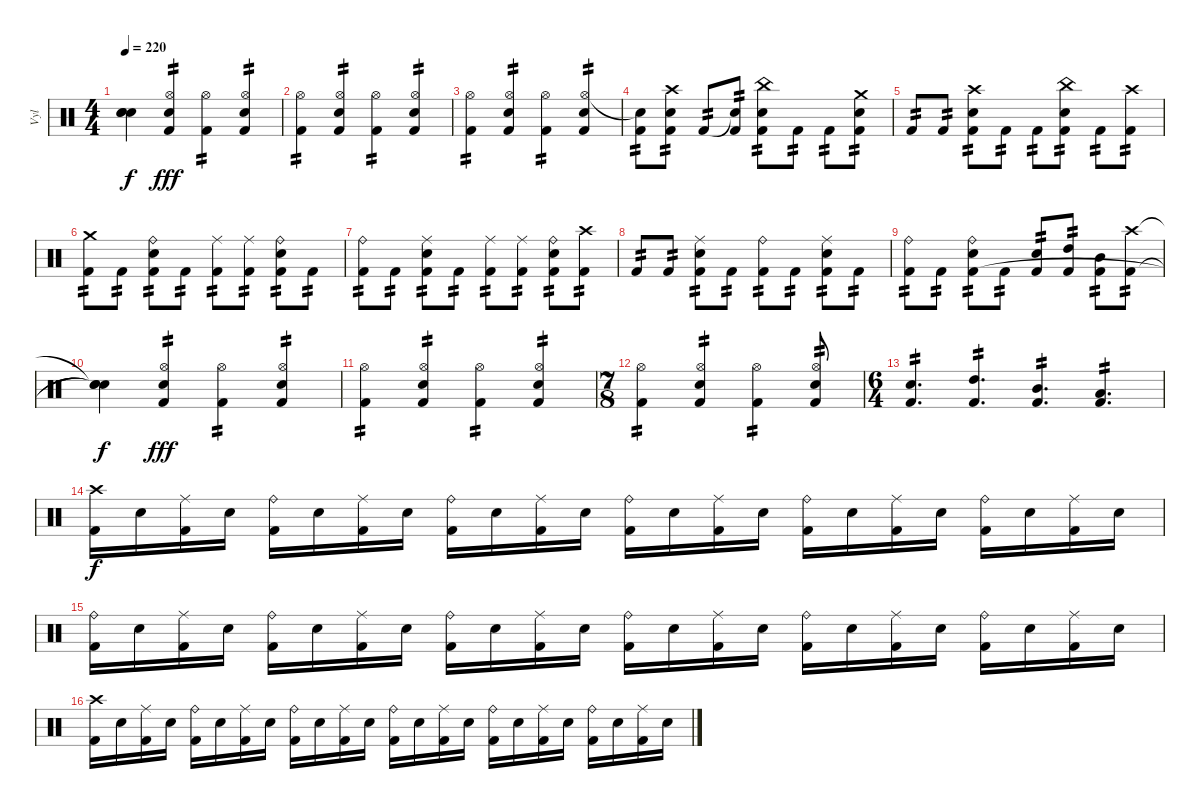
\track ("Vyl" "Vyl") {instrument percussion}
\staff {score}
\articulation defaults
\ts (4 4)
\tempo 220
\clef neutral
\ks c
("Snare (hit)"{t} "Snare (hit)"{t} "Snare (hit)"{t}).4{dy f} ("Hi-Hat (open)" "Snare (hit) 2" "Kick (hit) 2").4{tp 2 dy fff} ("Hi-Hat (open)" "Kick (hit) 2").4{tp 2} ("Hi-Hat (open)" "Snare (hit) 2" "Kick (hit) 2").4{tp 2} |
("Hi-Hat (open)" "Kick (hit) 2").4{tp 2} ("Hi-Hat (open)" "Snare (hit) 2" "Kick (hit) 2").4{tp 2} ("Hi-Hat (open)" "Kick (hit) 2").4{tp 2} ("Hi-Hat (open)" "Snare (hit) 2" "Kick (hit) 2").4{tp 2} |
("Hi-Hat (open)" "Kick (hit) 2").4{tp 2} ("Hi-Hat (open)" "Snare (hit) 2" "Kick (hit) 2").4{tp 2} ("Hi-Hat (open)" "Kick (hit) 2").4{tp 2} ("Hi-Hat (open)" "Snare (hit) 2" "Kick (hit) 2").4{tp 2} |
("Snare (hit)"{t} "Kick (hit) 2").8{tp 2} ("Crash high (hit)" "Snare (hit) 2" "Kick (hit) 2").8{tp 2} "Kick (hit) 2".8{tp 2} ("Snare (hit)"{t} "Kick (hit) 2").8{tp 2} ("China (hit)" "Snare (hit) 2" "Kick (hit) 2").8{tp 2} "Kick (hit) 2".8{tp 2} "Kick (hit) 2".8{tp 2} ("Crash medium (hit)" "Snare (hit) 2" "Kick (hit) 2").8{tp 2} |
"Kick (hit) 2".8{tp 2} "Kick (hit) 2".8{tp 2} ("Crash high (hit)" "Snare (hit) 2" "Kick (hit) 2").8{tp 2} "Kick (hit) 2".8{tp 2} "Kick (hit) 2".8{tp 2} ("China (hit)" "Snare (hit) 2" "Kick (hit) 2").8{tp 2} "Kick (hit) 2".8{tp 2} ("Crash high (hit)" "Kick (hit) 2").8{tp 2} |
("Crash medium (hit)" "Kick (hit) 2").8{tp 2} "Kick (hit) 2".8{tp 2} ("Ride (bell)" "Snare (hit) 2" "Kick (hit) 2").8{tp 2} "Kick (hit) 2".8{tp 2} ("Ride (middle)" "Kick (hit) 2").8{tp 2} ("Ride (middle)" "Kick (hit) 2").8{tp 2} ("Ride (bell)" "Snare (hit) 2" "Kick (hit) 2").8{tp 2} "Kick (hit) 2".8{tp 2} |
("Ride (bell)" "Kick (hit) 2").8{tp 2} "Kick (hit) 2".8{tp 2} ("Ride (middle)" "Snare (hit) 2" "Kick (hit) 2").8{tp 2} "Kick (hit) 2".8{tp 2} ("Ride (middle)" "Kick (hit) 2").8{tp 2} ("Ride (middle)" "Kick (hit) 2").8{tp 2} ("Ride (bell)" "Snare (hit) 2" "Kick (hit) 2").8{tp 2} ("Crash high (hit)" "Kick (hit) 2").8{tp 2} |
"Kick (hit) 2".8{tp 2} "Kick (hit) 2".8{tp 2} ("Ride (middle)" "Snare (hit) 2" "Kick (hit) 2").8{tp 2} "Kick (hit) 2".8{tp 2} ("Ride (bell)" "Kick (hit) 2").8{tp 2} "Kick (hit) 2".8{tp 2} ("Ride (middle)" "Snare (hit) 2" "Kick (hit) 2").8{tp 2} "Kick (hit) 2".8{tp 2} |
("Ride (bell)" "Kick (hit) 2").8{tp 2} "Kick (hit) 2".8{tp 2} ("Ride (bell)" "Snare (hit) 2" "Kick (hit) 2").8{tp 2} "Kick (hit) 2".8{tp 2} ("Snare (hit) 2" "Kick (hit) 2").8{tp 2} ("High Tom (hit)" "Kick (hit) 2").8{tp 2} ("Mid Tom (hit)" "Kick (hit) 2").8{tp 2} ("Crash high (hit)" "Kick (hit) 2").8{tp 2} |
("Snare (hit)"{t} "Snare (hit)"{t} "Snare (hit)"{t}).4{dy f} ("Hi-Hat (open)" "Snare (hit) 2" "Kick (hit) 2").4{tp 2 dy fff} ("Hi-Hat (open)" "Kick (hit) 2").4{tp 2} ("Hi-Hat (open)" "Snare (hit) 2" "Kick (hit) 2").4{tp 2} |
("Hi-Hat (open)" "Kick (hit) 2").4{tp 2} ("Hi-Hat (open)" "Snare (hit) 2" "Kick (hit) 2").4{tp 2} ("Hi-Hat (open)" "Kick (hit) 2").4{tp 2} ("Hi-Hat (open)" "Snare (hit) 2" "Kick (hit) 2").4{tp 2} |
\ts (7 8)
("Hi-Hat (open)" "Kick (hit) 2").4{tp 2} ("Hi-Hat (open)" "Snare (hit) 2" "Kick (hit) 2").4{tp 2} ("Hi-Hat (open)" "Kick (hit) 2").4{tp 2} ("Hi-Hat (open)" "Snare (hit) 2" "Kick (hit) 2").8{tp 2} |
\ts (6 4)
("Kick (hit) 2" "Snare (hit) 2").4{d tp 2} ("Kick (hit) 2" "High Tom (hit)").4{d tp 2} ("Kick (hit) 2" "Mid Tom (hit)").4{d tp 2} ("Kick (hit) 2" "Low Tom (hit)").4{d tp 2} |
("Crash high (hit)" "Kick (hit) 2").16{dy f} "Snare (hit) 2".16 ("Ride (middle)" "Kick (hit) 2").16 "Snare (hit) 2".16 ("Ride (bell)" "Kick (hit) 2").16 "Snare (hit) 2".16 ("Ride (middle)" "Kick (hit) 2").16 "Snare (hit) 2".16 ("Ride (bell)" "Kick (hit) 2").16 "Snare (hit) 2".16 ("Ride (middle)" "Kick (hit) 2").16 "Snare (hit) 2".16 ("Ride (bell)" "Kick (hit) 2").16 "Snare (hit) 2".16 ("Ride (middle)" "Kick (hit) 2").16 "Snare (hit) 2".16 ("Ride (bell)" "Kick (hit) 2").16 "Snare (hit) 2".16 ("Ride (middle)" "Kick (hit) 2").16 "Snare (hit) 2".16 ("Ride (bell)" "Kick (hit) 2").16 "Snare (hit) 2".16 ("Ride (middle)" "Kick (hit) 2").16 "Snare (hit) 2".16 |
("Ride (bell)" "Kick (hit) 2").16 "Snare (hit) 2".16 ("Ride (middle)" "Kick (hit) 2").16 "Snare (hit) 2".16 ("Ride (bell)" "Kick (hit) 2").16 "Snare (hit) 2".16 ("Ride (middle)" "Kick (hit) 2").16 "Snare (hit) 2".16 ("Ride (bell)" "Kick (hit) 2").16 "Snare (hit) 2".16 ("Ride (middle)" "Kick (hit) 2").16 "Snare (hit) 2".16 ("Ride (bell)" "Kick (hit) 2").16 "Snare (hit) 2".16 ("Ride (middle)" "Kick (hit) 2").16 "Snare (hit) 2".16 ("Ride (bell)" "Kick (hit) 2").16 "Snare (hit) 2".16 ("Ride (middle)" "Kick (hit) 2").16 "Snare (hit) 2".16 ("Ride (bell)" "Kick (hit) 2").16 "Snare (hit) 2".16 ("Ride (middle)" "Kick (hit) 2").16 "Snare (hit) 2".16 |
("Crash high (hit)" "Kick (hit) 2").16 "Snare (hit) 2".16 ("Ride (middle)" "Kick (hit) 2").16 "Snare (hit) 2".16 ("Ride (bell)" "Kick (hit) 2").16 "Snare (hit) 2".16 ("Ride (middle)" "Kick (hit) 2").16 "Snare (hit) 2".16 ("Ride (bell)" "Kick (hit) 2").16 "Snare (hit) 2".16 ("Ride (middle)" "Kick (hit) 2").16 "Snare (hit) 2".16 ("Ride (bell)" "Kick (hit) 2").16 "Snare (hit) 2".16 ("Ride (middle)" "Kick (hit) 2").16 "Snare (hit) 2".16 ("Ride (bell)" "Kick (hit) 2").16 "Snare (hit) 2".16 ("Ride (middle)" "Kick (hit) 2").16 "Snare (hit) 2".16 ("Ride (bell)" "Kick (hit) 2").16 "Snare (hit) 2".16 ("Ride (middle)" "Kick (hit) 2").16 "Snare (hit) 2".16
